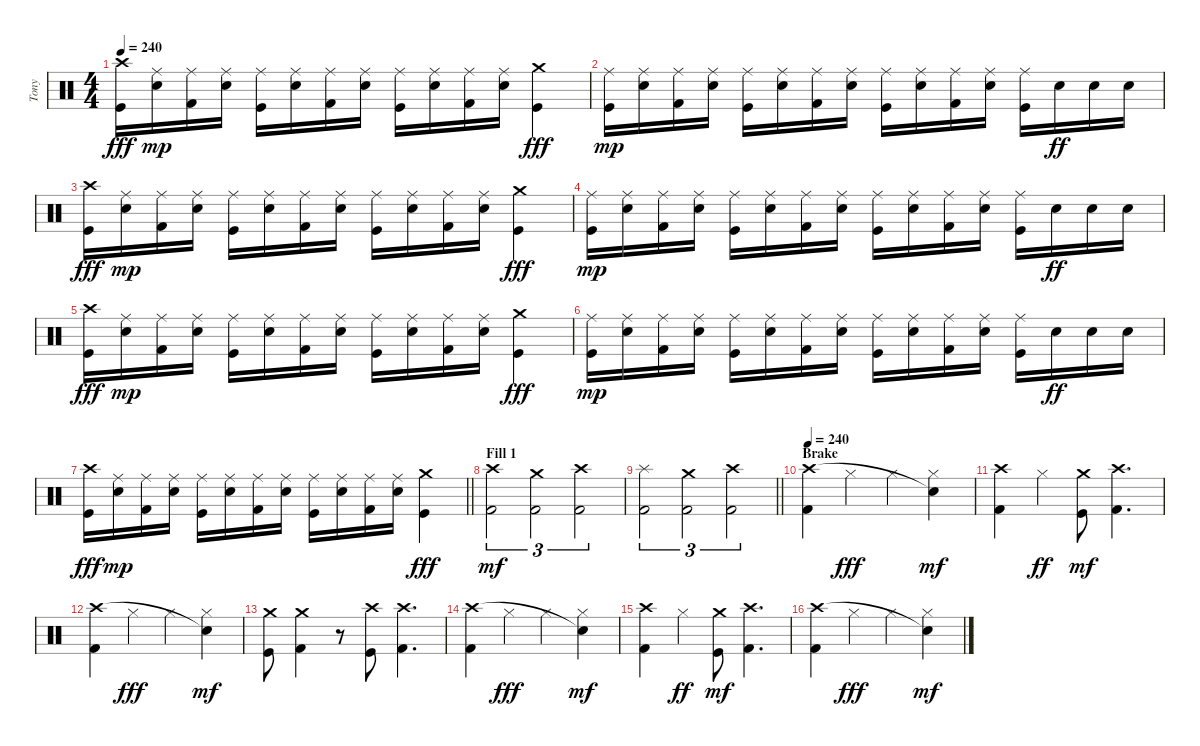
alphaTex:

\track ("Tony" "Tony") {instrument percussion}
\staff {score}
\articulation defaults
\ts (4 4)
\tempo 240
\clef neutral
\ks c
("Kick (hit)" "Crash high (hit)").16{dy fff} ("Snare (hit) 2" "Ride (middle)").16{dy mp} ("Kick (hit) 2" "Ride (middle)").16 ("Snare (hit) 2" "Ride (middle)").16 ("Kick (hit)" "Ride (middle)").16 ("Snare (hit) 2" "Ride (middle)").16 ("Kick (hit) 2" "Ride (middle)").16 ("Snare (hit) 2" "Ride (middle)").16 ("Kick (hit)" "Ride (middle)").16 ("Snare (hit) 2" "Ride (middle)").16 ("Kick (hit) 2" "Ride (middle)").16 ("Snare (hit) 2" "Ride (middle)").16 ("Kick (hit)" "Crash medium (hit)").4{dy fff} |
("Kick (hit)" "Ride (middle)").16{dy mp} ("Snare (hit) 2" "Ride (middle)").16 ("Kick (hit) 2" "Ride (middle)").16 ("Snare (hit) 2" "Ride (middle)").16 ("Kick (hit)" "Ride (middle)").16 ("Snare (hit) 2" "Ride (middle)").16 ("Kick (hit) 2" "Ride (middle)").16 ("Snare (hit) 2" "Ride (middle)").16 ("Kick (hit)" "Ride (middle)").16 ("Snare (hit) 2" "Ride (middle)").16 ("Kick (hit) 2" "Ride (middle)").16 ("Snare (hit) 2" "Ride (middle)").16 ("Kick (hit)" "Ride (middle)").16 "Snare (hit) 2".16{dy ff} "Snare (hit) 2".16 "Snare (hit) 2".16 |
("Kick (hit)" "Crash high (hit)").16{dy fff} ("Snare (hit) 2" "Ride (middle)").16{dy mp} ("Kick (hit) 2" "Ride (middle)").16 ("Snare (hit) 2" "Ride (middle)").16 ("Kick (hit)" "Ride (middle)").16 ("Snare (hit) 2" "Ride (middle)").16 ("Kick (hit) 2" "Ride (middle)").16 ("Snare (hit) 2" "Ride (middle)").16 ("Kick (hit)" "Ride (middle)").16 ("Snare (hit) 2" "Ride (middle)").16 ("Kick (hit) 2" "Ride (middle)").16 ("Snare (hit) 2" "Ride (middle)").16 ("Kick (hit)" "Crash medium (hit)").4{dy fff} |
("Kick (hit)" "Ride (middle)").16{dy mp} ("Snare (hit) 2" "Ride (middle)").16 ("Kick (hit) 2" "Ride (middle)").16 ("Snare (hit) 2" "Ride (middle)").16 ("Kick (hit)" "Ride (middle)").16 ("Snare (hit) 2" "Ride (middle)").16 ("Kick (hit) 2" "Ride (middle)").16 ("Snare (hit) 2" "Ride (middle)").16 ("Kick (hit)" "Ride (middle)").16 ("Snare (hit) 2" "Ride (middle)").16 ("Kick (hit) 2" "Ride (middle)").16 ("Snare (hit) 2" "Ride (middle)").16 ("Kick (hit)" "Ride (middle)").16 "Snare (hit) 2".16{dy ff} "Snare (hit) 2".16 "Snare (hit) 2".16 |
("Kick (hit)" "Crash high (hit)").16{dy fff} ("Snare (hit) 2" "Ride (middle)").16{dy mp} ("Kick (hit) 2" "Ride (middle)").16 ("Snare (hit) 2" "Ride (middle)").16 ("Kick (hit)" "Ride (middle)").16 ("Snare (hit) 2" "Ride (middle)").16 ("Kick (hit) 2" "Ride (middle)").16 ("Snare (hit) 2" "Ride (middle)").16 ("Kick (hit)" "Ride (middle)").16 ("Snare (hit) 2" "Ride (middle)").16 ("Kick (hit) 2" "Ride (middle)").16 ("Snare (hit) 2" "Ride (middle)").16 ("Kick (hit)" "Crash medium (hit)").4{dy fff} |
("Kick (hit)" "Ride (middle)").16{dy mp} ("Snare (hit) 2" "Ride (middle)").16 ("Kick (hit) 2" "Ride (middle)").16 ("Snare (hit) 2" "Ride (middle)").16 ("Kick (hit)" "Ride (middle)").16 ("Snare (hit) 2" "Ride (middle)").16 ("Kick (hit) 2" "Ride (middle)").16 ("Snare (hit) 2" "Ride (middle)").16 ("Kick (hit)" "Ride (middle)").16 ("Snare (hit) 2" "Ride (middle)").16 ("Kick (hit) 2" "Ride (middle)").16 ("Snare (hit) 2" "Ride (middle)").16 ("Kick (hit)" "Ride (middle)").16 "Snare (hit) 2".16{dy ff} "Snare (hit) 2".16 "Snare (hit) 2".16 |
\barLineRight lightlight
("Kick (hit)" "Crash high (hit)").16{dy fff} ("Snare (hit) 2" "Ride (middle)").16{dy mp} ("Kick (hit) 2" "Ride (middle)").16 ("Snare (hit) 2" "Ride (middle)").16 ("Kick (hit)" "Ride (middle)").16 ("Snare (hit) 2" "Ride (middle)").16 ("Kick (hit) 2" "Ride (middle)").16 ("Snare (hit) 2" "Ride (middle)").16 ("Kick (hit)" "Ride (middle)").16 ("Snare (hit) 2" "Ride (middle)").16 ("Kick (hit) 2" "Ride (middle)").16 ("Snare (hit) 2" "Ride (middle)").16 ("Kick (hit)" "Crash medium (hit)").4{dy fff} |
\section ("" "Fill 1")
("Kick (hit) 2" "Crash high (hit)").2{tu (3 2) dy mf} ("Kick (hit) 2" "Crash medium (hit)").2{tu (3 2)} ("Kick (hit) 2" "Crash high (hit)").2{tu (3 2)} |
\barLineRight lightlight
("Kick (hit) 2" "Splash (hit)").2{tu (3 2)} ("Kick (hit) 2" "Crash medium (hit)").2{tu (3 2)} ("Kick (hit) 2" "Crash high (hit)").2{tu (3 2)} |
\section ("" "Brake")
\tempo 240
("Kick (hit) 2" "Crash high (hit)").4 "Hi-Hat (closed)".4{dy fff} "Hi-Hat (closed)".4 ("Hi-Hat (closed)" "Snare (hit)"{t}).4{dy mf} |
("Kick (hit) 2" "Crash high (hit)").4 "Hi-Hat (closed)".4{dy ff} ("Kick (hit)" "Crash medium (hit)").8{dy mf} ("Kick (hit) 2" "Crash high (hit)").4{d} |
("Kick (hit) 2" "Crash high (hit)").4 "Hi-Hat (closed)".4{dy fff} "Hi-Hat (closed)".4 ("Hi-Hat (closed)" "Snare (hit)"{t}).4{dy mf} |
("Kick (hit)" "Crash medium (hit)").8 ("Kick (hit) 2" "Crash medium (hit)").4 r.8 ("Kick (hit)" "Crash high (hit)").8 ("Kick (hit) 2" "Crash high (hit)").4{d} |
("Kick (hit) 2" "Crash high (hit)").4 "Hi-Hat (closed)".4{dy fff} "Hi-Hat (closed)".4 ("Hi-Hat (closed)" "Snare (hit)"{t}).4{dy mf} |
("Kick (hit) 2" "Crash high (hit)").4 "Hi-Hat (closed)".4{dy ff} ("Kick (hit)" "Crash medium (hit)").8{dy mf} ("Kick (hit) 2" "Crash high (hit)").4{d} |
("Kick (hit) 2" "Crash high (hit)").4 "Hi-Hat (closed)".4{dy fff} "Hi-Hat (closed)".4 ("Hi-Hat (closed)" "Snare (hit)"{t}).4{dy mf}
